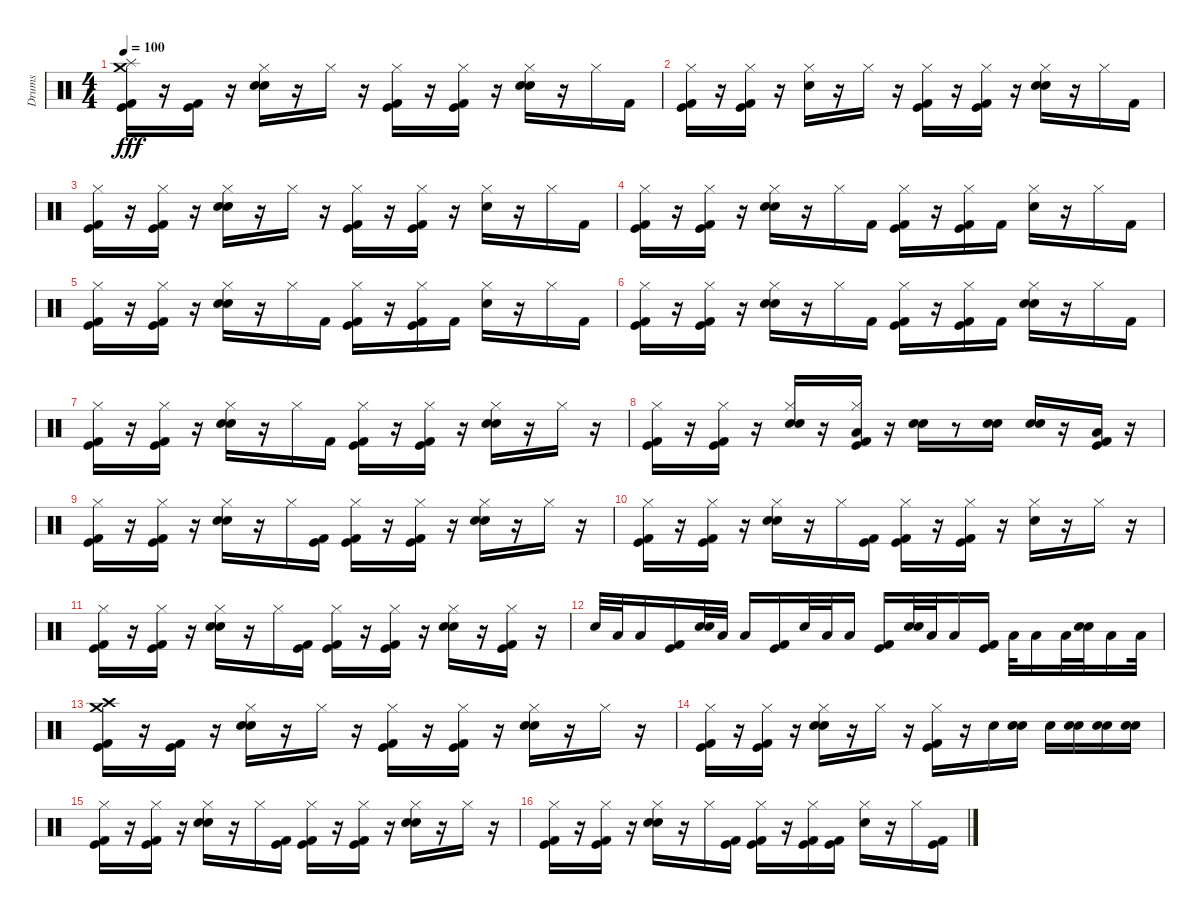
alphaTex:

\track ("Drums" "Drums") {instrument percussion}
\staff {score}
\articulation defaults
\ts (4 4)
\tempo 100
\clef neutral
\ks c
("Splash (hit)" "Kick (hit) 2" "Kick (hit)" "Crash medium (hit)").16{dy fff} r.16 ("Kick (hit) 2" "Kick (hit)").16 r.16 ("Snare (hit) 2" "Hi-Hat (closed)" "Electric Snare (hit)").16 r.16 "Hi-Hat (closed)".16 r.16 ("Kick (hit)" "Kick (hit) 2" "Hi-Hat (closed)").16 r.16 ("Kick (hit)" "Hi-Hat (closed)" "Kick (hit) 2").16 r.16 ("Hi-Hat (closed)" "Electric Snare (hit)" "Snare (hit) 2").16 r.16 "Hi-Hat (closed)".16 "Kick (hit) 2".16 |
("Kick (hit) 2" "Kick (hit)" "Hi-Hat (closed)").16 r.16 ("Kick (hit)" "Kick (hit) 2" "Hi-Hat (closed)").16 r.16 ("Hi-Hat (closed)" "Electric Snare (hit)").16 r.16 "Hi-Hat (closed)".16 r.16 ("Kick (hit) 2" "Kick (hit)" "Hi-Hat (closed)").16 r.16 ("Hi-Hat (closed)" "Kick (hit) 2" "Kick (hit)").16 r.16 ("Hi-Hat (closed)" "Electric Snare (hit)" "Snare (hit) 2").16 r.16 "Hi-Hat (closed)".16 "Kick (hit) 2".16 |
("Kick (hit) 2" "Hi-Hat (closed)" "Kick (hit)").16 r.16 ("Kick (hit)" "Kick (hit) 2" "Hi-Hat (closed)").16 r.16 ("Hi-Hat (closed)" "Snare (hit) 2" "Electric Snare (hit)").16 r.16 "Hi-Hat (closed)".16 r.16 ("Kick (hit)" "Hi-Hat (closed)" "Kick (hit) 2").16 r.16 ("Kick (hit)" "Kick (hit) 2" "Hi-Hat (closed)").16 r.16 ("Hi-Hat (closed)" "Electric Snare (hit)").16 r.16 "Hi-Hat (closed)".16 "Kick (hit) 2".16 |
("Kick (hit)" "Kick (hit) 2" "Hi-Hat (closed)").16 r.16 ("Hi-Hat (closed)" "Kick (hit) 2" "Kick (hit)").16 r.16 ("Snare (hit) 2" "Electric Snare (hit)" "Hi-Hat (closed)").16 r.16 "Hi-Hat (closed)".16 "Kick (hit) 2".16 ("Kick (hit)" "Kick (hit) 2" "Hi-Hat (closed)").16 r.16 ("Hi-Hat (closed)" "Kick (hit) 2" "Kick (hit)").16 "Kick (hit) 2".16 ("Hi-Hat (closed)" "Electric Snare (hit)").16 r.16 "Hi-Hat (closed)".16 "Kick (hit) 2".16 |
("Kick (hit)" "Hi-Hat (closed)" "Kick (hit) 2").16 r.16 ("Kick (hit) 2" "Hi-Hat (closed)" "Kick (hit)").16 r.16 ("Hi-Hat (closed)" "Electric Snare (hit)" "Snare (hit) 2").16 r.16 "Hi-Hat (closed)".16 "Kick (hit) 2".16 ("Hi-Hat (closed)" "Kick (hit)" "Kick (hit) 2").16 r.16 ("Hi-Hat (closed)" "Kick (hit)" "Kick (hit) 2").16 "Kick (hit) 2".16 ("Hi-Hat (closed)" "Electric Snare (hit)").16 r.16 "Hi-Hat (closed)".16 "Kick (hit) 2".16 |
("Kick (hit) 2" "Hi-Hat (closed)" "Kick (hit)").16 r.16 ("Kick (hit)" "Kick (hit) 2" "Hi-Hat (closed)").16 r.16 ("Electric Snare (hit)" "Snare (hit) 2" "Hi-Hat (closed)").16 r.16 "Hi-Hat (closed)".16 "Kick (hit) 2".16 ("Kick (hit) 2" "Hi-Hat (closed)" "Kick (hit)").16 r.16 ("Kick (hit) 2" "Kick (hit)" "Hi-Hat (closed)").16 "Kick (hit) 2".16 ("Snare (hit) 2" "Hi-Hat (closed)" "Electric Snare (hit)").16 r.16 "Hi-Hat (closed)".16 "Kick (hit) 2".16 |
("Kick (hit)" "Kick (hit) 2" "Hi-Hat (closed)").16 r.16 ("Kick (hit)" "Kick (hit) 2" "Hi-Hat (closed)").16 r.16 ("Electric Snare (hit)" "Hi-Hat (closed)" "Snare (hit) 2").16 r.16 "Hi-Hat (closed)".16 "Kick (hit) 2".16 ("Kick (hit) 2" "Kick (hit)" "Hi-Hat (closed)").16 r.16 ("Kick (hit) 2" "Kick (hit)" "Hi-Hat (closed)").16 r.16 ("Snare (hit) 2" "Hi-Hat (closed)" "Electric Snare (hit)").16 r.16 "Hi-Hat (closed)".16 r.16 |
("Hi-Hat (closed)" "Kick (hit) 2" "Kick (hit)").16 r.16 ("Kick (hit) 2" "Kick (hit)" "Hi-Hat (closed)").16 r.16 ("Hi-Hat (closed)" "Electric Snare (hit)" "Snare (hit) 2").16 r.16 ("Kick (hit) 2" "Low Floor Tom (hit)" "Hi-Hat (closed)" "Kick (hit)").16 r.16 ("Electric Snare (hit)" "Snare (hit) 2").16 r.8 ("Snare (hit) 2" "Electric Snare (hit)").16 ("Electric Snare (hit)" "Snare (hit) 2").16 r.16 ("Low Floor Tom (hit)" "Kick (hit) 2" "Kick (hit)").16 r.16 |
("Kick (hit)" "Hi-Hat (closed)" "Kick (hit) 2").16 r.16 ("Kick (hit)" "Hi-Hat (closed)" "Kick (hit) 2").16 r.16 ("Hi-Hat (closed)" "Electric Snare (hit)" "Snare (hit) 2").16 r.16 "Hi-Hat (closed)".16 ("Kick (hit) 2" "Kick (hit)").16 ("Kick (hit)" "Hi-Hat (closed)" "Kick (hit) 2").16 r.16 ("Kick (hit)" "Kick (hit) 2" "Hi-Hat (closed)").16 r.16 ("Hi-Hat (closed)" "Snare (hit) 2" "Electric Snare (hit)").16 r.16 "Hi-Hat (closed)".16 r.16 |
("Hi-Hat (closed)" "Kick (hit)" "Kick (hit) 2").16 r.16 ("Hi-Hat (closed)" "Kick (hit) 2" "Kick (hit)").16 r.16 ("Snare (hit) 2" "Hi-Hat (closed)" "Electric Snare (hit)").16 r.16 "Hi-Hat (closed)".16 ("Kick (hit)" "Kick (hit) 2").16 ("Hi-Hat (closed)" "Kick (hit) 2" "Kick (hit)").16 r.16 ("Hi-Hat (closed)" "Kick (hit)" "Kick (hit) 2").16 r.16 ("Electric Snare (hit)" "Hi-Hat (closed)").16 r.16 "Hi-Hat (closed)".16 r.16 |
("Hi-Hat (closed)" "Kick (hit)" "Kick (hit) 2").16 r.16 ("Kick (hit) 2" "Kick (hit)" "Hi-Hat (closed)").16 r.16 ("Electric Snare (hit)" "Snare (hit) 2" "Hi-Hat (closed)").16 r.16 "Hi-Hat (closed)".16 ("Kick (hit)" "Kick (hit) 2").16 ("Kick (hit) 2" "Kick (hit)" "Hi-Hat (closed)").16 r.16 ("Kick (hit) 2" "Kick (hit)" "Hi-Hat (closed)").16 r.16 ("Hi-Hat (closed)" "Electric Snare (hit)" "Snare (hit) 2").16 r.16 ("Kick (hit) 2" "Hi-Hat (closed)" "Kick (hit)").16 r.16 |
"Electric Snare (hit)".32 "Low Tom (hit)".32 "Low Floor Tom (hit)".16 ("Kick (hit) 2" "Kick (hit)").16 ("Electric Snare (hit)" "Snare (hit) 2").32 "Low Tom (hit)".32 "Low Floor Tom (hit)".16 ("Kick (hit) 2" "Kick (hit)").16 "Electric Snare (hit)".32 "Low Tom (hit)".32 "Low Floor Tom (hit)".16 ("Kick (hit) 2" "Kick (hit)").16 ("Snare (hit) 2" "Electric Snare (hit)").32 "Low Tom (hit)".32 "Low Floor Tom (hit)".16 ("Kick (hit) 2" "Kick (hit)").16 "Low Tom (hit)".32 "Low Floor Tom (hit)".16 "Low Tom (hit)".32 ("Snare (hit) 2" "Electric Snare (hit)").32 "Low Tom (hit)".16 "Low Floor Tom (hit)".32 |
("Kick (hit)" "Kick (hit) 2" "Crash high (hit)" "Crash medium (hit)").16 r.16 ("Kick (hit)" "Kick (hit) 2").16 r.16 ("Hi-Hat (closed)" "Electric Snare (hit)" "Snare (hit) 2").16 r.16 "Hi-Hat (closed)".16 r.16 ("Hi-Hat (closed)" "Kick (hit) 2" "Kick (hit)").16 r.16 ("Kick (hit) 2" "Hi-Hat (closed)" "Kick (hit)").16 r.16 ("Hi-Hat (closed)" "Snare (hit) 2" "Electric Snare (hit)").16 r.16 "Hi-Hat (closed)".16 r.16 |
("Kick (hit)" "Hi-Hat (closed)" "Kick (hit) 2").16 r.16 ("Hi-Hat (closed)" "Kick (hit)" "Kick (hit) 2").16 r.16 ("Snare (hit) 2" "Hi-Hat (closed)" "Electric Snare (hit)").16 r.16 "Hi-Hat (closed)".16 r.16 ("Kick (hit) 2" "Kick (hit)" "Hi-Hat (closed)").16 r.16 "Electric Snare (hit)".16 ("Electric Snare (hit)" "Snare (hit) 2").16 "Electric Snare (hit)".16 ("Snare (hit) 2" "Electric Snare (hit)").16 ("Snare (hit) 2" "Electric Snare (hit)").16 ("Electric Snare (hit)" "Snare (hit) 2").16 |
("Kick (hit)" "Kick (hit) 2" "Hi-Hat (closed)").16 r.16 ("Kick (hit) 2" "Kick (hit)" "Hi-Hat (closed)").16 r.16 ("Hi-Hat (closed)" "Snare (hit) 2" "Electric Snare (hit)").16 r.16 "Hi-Hat (closed)".16 ("Kick (hit)" "Kick (hit) 2").16 ("Kick (hit) 2" "Kick (hit)" "Hi-Hat (closed)").16 r.16 ("Hi-Hat (closed)" "Kick (hit) 2" "Kick (hit)").16 r.16 ("Snare (hit) 2" "Electric Snare (hit)" "Hi-Hat (closed)").16 r.16 "Hi-Hat (closed)".16 r.16 |
("Kick (hit)" "Kick (hit) 2" "Hi-Hat (closed)").16 r.16 ("Kick (hit)" "Kick (hit) 2" "Hi-Hat (closed)").16 r.16 ("Snare (hit) 2" "Hi-Hat (closed)" "Electric Snare (hit)").16 r.16 "Hi-Hat (closed)".16 ("Kick (hit) 2" "Kick (hit)").16 ("Kick (hit)" "Kick (hit) 2" "Hi-Hat (closed)").16 r.16 ("Kick (hit)" "Hi-Hat (closed)" "Kick (hit) 2").16 ("Kick (hit) 2" "Kick (hit)").16 ("Electric Snare (hit)" "Hi-Hat (closed)").16 r.16 "Hi-Hat (closed)".16 ("Kick (hit)" "Kick (hit) 2").16
